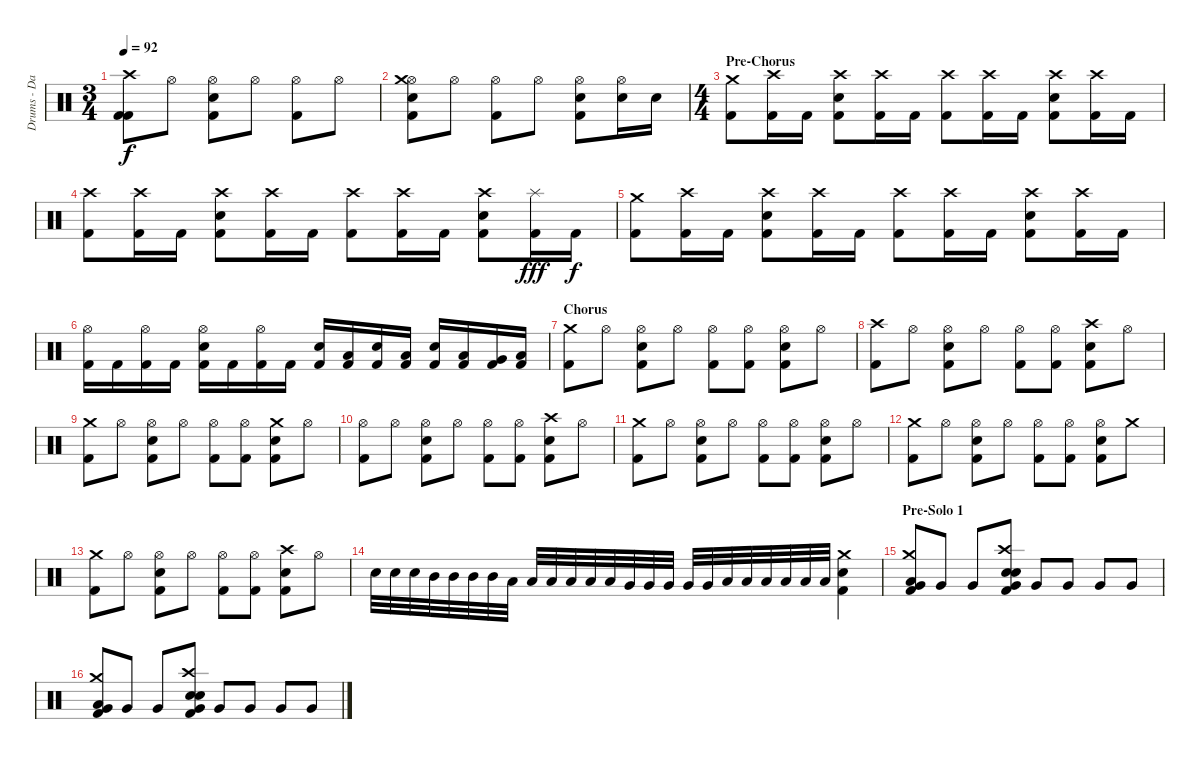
\track ("Drums - Daniel Zimmermann" "Drums - Da") {instrument percussion}
\staff {score}
\articulation defaults
\ts (3 4)
\tempo 92
\clef neutral
\ks c
("Kick (hit) 2" "Kick (hit) 2" "Crash high (hit)").8{dy f} "Hi-Hat (open)".8 ("Kick (hit) 2" "Electric Snare (hit)" "Hi-Hat (open)").8 "Hi-Hat (open)".8 ("Kick (hit) 2" "Hi-Hat (open)").8 "Hi-Hat (open)".8 |
("Kick (hit) 2" "Electric Snare (hit)" "Hi-Hat (open)" "Crash medium (hit)").8 "Hi-Hat (open)".8 ("Kick (hit) 2" "Hi-Hat (open)").8 "Hi-Hat (open)".8 ("Kick (hit) 2" "Electric Snare (hit)" "Hi-Hat (open)").8 ("Electric Snare (hit)" "Hi-Hat (open)").16 "Electric Snare (hit)".16 |
\ts (4 4)
\section ("" "Pre-Chorus")
("Kick (hit) 2" "Crash medium (hit)").8 ("Kick (hit) 2" "Crash high (hit)").16 "Kick (hit) 2".16 ("Kick (hit) 2" "Electric Snare (hit)" "Crash high (hit)").8 ("Kick (hit) 2" "Crash high (hit)").16 "Kick (hit) 2".16 ("Kick (hit) 2" "Crash high (hit)").8 ("Kick (hit) 2" "Crash high (hit)").16 "Kick (hit) 2".16 ("Kick (hit) 2" "Electric Snare (hit)" "Crash high (hit)").8 ("Kick (hit) 2" "Crash high (hit)").16 "Kick (hit) 2".16 |
("Kick (hit) 2" "Crash high (hit)").8 ("Kick (hit) 2" "Crash high (hit)").16 "Kick (hit) 2".16 ("Kick (hit) 2" "Electric Snare (hit)" "Crash high (hit)").8 ("Kick (hit) 2" "Crash high (hit)").16 "Kick (hit) 2".16 ("Kick (hit) 2" "Crash high (hit)").8 ("Kick (hit) 2" "Crash high (hit)").16 "Kick (hit) 2".16 ("Kick (hit) 2" "Electric Snare (hit)" "Crash high (hit)").8 ("Kick (hit) 2" "Splash (hit)").16{dy fff} "Kick (hit) 2".16{dy f} |
("Kick (hit) 2" "Crash medium (hit)").8 ("Kick (hit) 2" "Crash high (hit)").16 "Kick (hit) 2".16 ("Kick (hit) 2" "Electric Snare (hit)" "Crash high (hit)").8 ("Kick (hit) 2" "Crash high (hit)").16 "Kick (hit) 2".16 ("Kick (hit) 2" "Crash high (hit)").8 ("Kick (hit) 2" "Crash high (hit)").16 "Kick (hit) 2".16 ("Kick (hit) 2" "Electric Snare (hit)" "Crash high (hit)").8 ("Kick (hit) 2" "Crash high (hit)").16 "Kick (hit) 2".16 |
("Kick (hit) 2" "Hi-Hat (open)").16 "Kick (hit) 2".16 ("Kick (hit) 2" "Hi-Hat (open)").16 "Kick (hit) 2".16 ("Kick (hit) 2" "Electric Snare (hit)" "Hi-Hat (open)").16 "Kick (hit) 2".16 ("Kick (hit) 2" "Hi-Hat (open)").16 "Kick (hit) 2".16 ("Kick (hit) 2" "Electric Snare (hit)").16 ("Kick (hit) 2" "Low Tom (hit)").16 ("Kick (hit) 2" "Electric Snare (hit)").16 ("Kick (hit) 2" "Low Tom (hit)").16 ("Kick (hit) 2" "Electric Snare (hit)").16 ("Kick (hit) 2" "Low Tom (hit)").16 ("Kick (hit) 2" "Very Low Tom (hit)").16 ("Kick (hit) 2" "Low Floor Tom (hit)").16 |
\section ("" "Chorus")
("Kick (hit) 2" "Crash medium (hit)").8 "Hi-Hat (open)".8 ("Kick (hit) 2" "Electric Snare (hit)" "Hi-Hat (open)").8 "Hi-Hat (open)".8 ("Kick (hit) 2" "Hi-Hat (open)").8 ("Kick (hit) 2" "Hi-Hat (open)").8 ("Kick (hit) 2" "Electric Snare (hit)" "Hi-Hat (open)").8 "Hi-Hat (open)".8 |
("Kick (hit) 2" "Crash high (hit)").8 "Hi-Hat (open)".8 ("Kick (hit) 2" "Electric Snare (hit)" "Hi-Hat (open)").8 "Hi-Hat (open)".8 ("Kick (hit) 2" "Hi-Hat (open)").8 ("Kick (hit) 2" "Hi-Hat (open)").8 ("Kick (hit) 2" "Electric Snare (hit)" "Crash high (hit)").8 "Hi-Hat (open)".8 |
("Kick (hit) 2" "Crash medium (hit)").8 "Hi-Hat (open)".8 ("Kick (hit) 2" "Electric Snare (hit)" "Hi-Hat (open)").8 "Hi-Hat (open)".8 ("Kick (hit) 2" "Hi-Hat (open)").8 ("Kick (hit) 2" "Hi-Hat (open)").8 ("Kick (hit) 2" "Electric Snare (hit)" "Crash medium (hit)").8 "Hi-Hat (open)".8 |
("Kick (hit) 2" "Hi-Hat (open)").8 "Hi-Hat (open)".8 ("Kick (hit) 2" "Electric Snare (hit)" "Hi-Hat (open)").8 "Hi-Hat (open)".8 ("Kick (hit) 2" "Hi-Hat (open)").8 ("Kick (hit) 2" "Hi-Hat (open)").8 ("Kick (hit) 2" "Electric Snare (hit)" "Crash high (hit)").8 "Hi-Hat (open)".8 |
("Kick (hit) 2" "Crash medium (hit)").8 "Hi-Hat (open)".8 ("Kick (hit) 2" "Electric Snare (hit)" "Hi-Hat (open)").8 "Hi-Hat (open)".8 ("Kick (hit) 2" "Hi-Hat (open)").8 ("Kick (hit) 2" "Hi-Hat (open)").8 ("Kick (hit) 2" "Electric Snare (hit)" "Hi-Hat (open)").8 "Hi-Hat (open)".8 |
("Kick (hit) 2" "Crash medium (hit)").8 "Hi-Hat (open)".8 ("Kick (hit) 2" "Electric Snare (hit)" "Hi-Hat (open)").8 "Hi-Hat (open)".8 ("Kick (hit) 2" "Hi-Hat (open)").8 ("Kick (hit) 2" "Hi-Hat (open)").8 ("Kick (hit) 2" "Electric Snare (hit)" "Hi-Hat (open)").8 "Crash medium (hit)".8 |
("Kick (hit) 2" "Crash medium (hit)").8 "Hi-Hat (open)".8 ("Kick (hit) 2" "Electric Snare (hit)" "Hi-Hat (open)").8 "Hi-Hat (open)".8 ("Kick (hit) 2" "Hi-Hat (open)").8 ("Kick (hit) 2" "Hi-Hat (open)").8 ("Kick (hit) 2" "Electric Snare (hit)" "Crash high (hit)").8 "Hi-Hat (open)".8 |
"Electric Snare (hit)".32 "Electric Snare (hit)".32 "Electric Snare (hit)".32 "Mid Tom (hit)".32 "Mid Tom (hit)".32 "Mid Tom (hit)".32 "Mid Tom (hit)".32 "Low Tom (hit)".32 "Low Tom (hit)".32 "Low Tom (hit)".32 "Low Tom (hit)".32 "Low Tom (hit)".32 "Low Tom (hit)".32 "Very Low Tom (hit)".32 "Very Low Tom (hit)".32 "Very Low Tom (hit)".32 "Very Low Tom (hit)".32 "Very Low Tom (hit)".32 "Low Floor Tom (hit)".32 "Low Floor Tom (hit)".32 "Low Floor Tom (hit)".32 "Low Floor Tom (hit)".32 "Low Floor Tom (hit)".32 "Low Floor Tom (hit)".32 ("Kick (hit) 2" "Electric Snare (hit)" "Crash medium (hit)").4 |
\section ("" "Pre-Solo 1")
("Kick (hit) 2" "Crash medium (hit)" "Low Tom (hit)" "Very Low Tom (hit)").8 "Very Low Tom (hit)".8 "Very Low Tom (hit)".8 ("Kick (hit) 2" "Electric Snare (hit)" "Crash high (hit)" "Electric Snare (hit)" "Very Low Tom (hit)").8 "Very Low Tom (hit)".8 "Very Low Tom (hit)".8 "Very Low Tom (hit)".8 "Very Low Tom (hit)".8 |
("Kick (hit) 2" "Crash medium (hit)" "Low Tom (hit)" "Very Low Tom (hit)").8 "Very Low Tom (hit)".8 "Very Low Tom (hit)".8 ("Kick (hit) 2" "Electric Snare (hit)" "Crash high (hit)" "Electric Snare (hit)" "Very Low Tom (hit)").8 "Very Low Tom (hit)".8 "Very Low Tom (hit)".8 "Very Low Tom (hit)".8 "Very Low Tom (hit)".8
